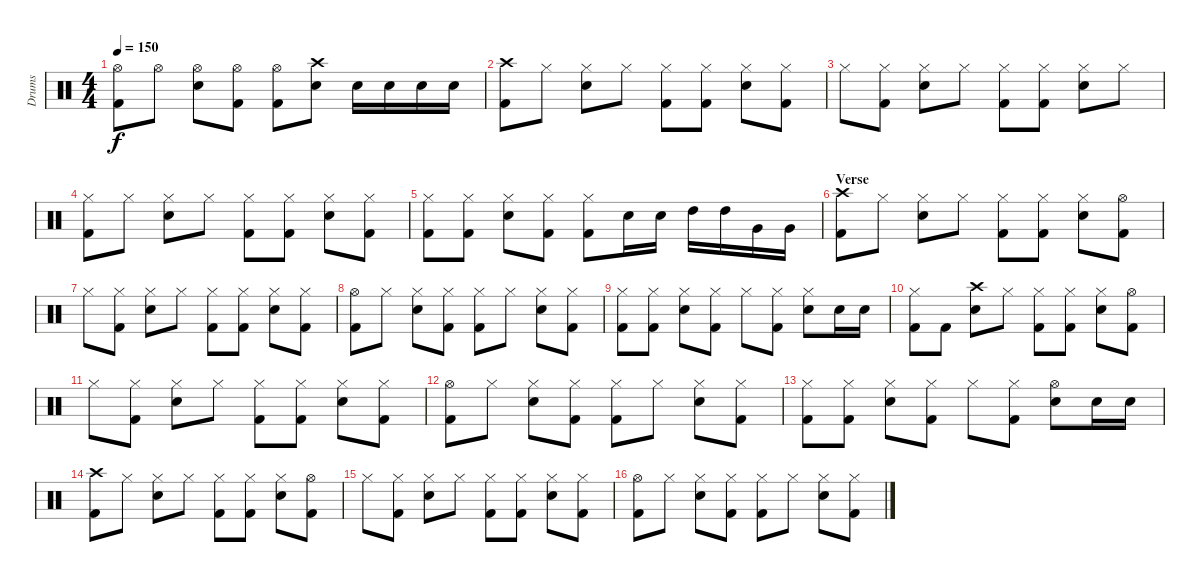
\track ("Drums" "Drums") {instrument percussion}
\staff {score}
\articulation defaults
\ts (4 4)
\tempo 150
\clef neutral
\ks c
("Hi-Hat (open)" "Kick (hit) 2").8{dy f} "Hi-Hat (open)".8 ("Hi-Hat (open)" "Electric Snare (hit)").8 ("Hi-Hat (open)" "Kick (hit) 2").8 ("Hi-Hat (open)" "Kick (hit) 2").8 ("Crash high (hit)" "Electric Snare (hit)").8 "Electric Snare (hit)".16 "Electric Snare (hit)".16 "Electric Snare (hit)".16 "Electric Snare (hit)".16 |
("Crash high (hit)" "Kick (hit) 2").8 "Hi-Hat (closed)".8 ("Hi-Hat (closed)" "Electric Snare (hit)").8 "Hi-Hat (closed)".8 ("Hi-Hat (closed)" "Kick (hit) 2").8 ("Hi-Hat (closed)" "Kick (hit) 2").8 ("Hi-Hat (closed)" "Electric Snare (hit)").8 ("Hi-Hat (closed)" "Kick (hit) 2").8 |
"Hi-Hat (closed)".8 ("Hi-Hat (closed)" "Kick (hit) 2").8 ("Hi-Hat (closed)" "Electric Snare (hit)").8 "Hi-Hat (closed)".8 ("Hi-Hat (closed)" "Kick (hit) 2").8 ("Hi-Hat (closed)" "Kick (hit) 2").8 ("Hi-Hat (closed)" "Electric Snare (hit)").8 "Hi-Hat (closed)".8 |
("Hi-Hat (closed)" "Kick (hit) 2").8 "Hi-Hat (closed)".8 ("Hi-Hat (closed)" "Electric Snare (hit)").8 "Hi-Hat (closed)".8 ("Hi-Hat (closed)" "Kick (hit) 2").8 ("Hi-Hat (closed)" "Kick (hit) 2").8 ("Hi-Hat (closed)" "Electric Snare (hit)").8 ("Hi-Hat (closed)" "Kick (hit) 2").8 |
("Hi-Hat (closed)" "Kick (hit) 2").8 ("Hi-Hat (closed)" "Kick (hit) 2").8 ("Hi-Hat (closed)" "Electric Snare (hit)").8 ("Hi-Hat (closed)" "Kick (hit) 2").8 ("Hi-Hat (closed)" "Kick (hit) 2").8 "Electric Snare (hit)".16 "Electric Snare (hit)".16 "High Tom (hit)".16 "High Tom (hit)".16 "Very Low Tom (hit)".16 "Very Low Tom (hit)".16 |
\section ("" "Verse")
("Crash high (hit)" "Kick (hit) 2").8 "Hi-Hat (closed)".8 ("Hi-Hat (closed)" "Electric Snare (hit)").8 "Hi-Hat (closed)".8 ("Hi-Hat (closed)" "Kick (hit) 2").8 ("Hi-Hat (closed)" "Kick (hit) 2").8 ("Hi-Hat (closed)" "Electric Snare (hit)").8 ("Hi-Hat (open)" "Kick (hit) 2").8 |
"Hi-Hat (closed)".8 ("Hi-Hat (closed)" "Kick (hit) 2").8 ("Hi-Hat (closed)" "Electric Snare (hit)").8 "Hi-Hat (closed)".8 ("Hi-Hat (closed)" "Kick (hit) 2").8 ("Hi-Hat (closed)" "Kick (hit) 2").8 ("Hi-Hat (closed)" "Electric Snare (hit)").8 ("Hi-Hat (closed)" "Kick (hit) 2").8 |
("Hi-Hat (open)" "Kick (hit) 2").8 "Hi-Hat (closed)".8 ("Hi-Hat (closed)" "Electric Snare (hit)").8 ("Hi-Hat (closed)" "Kick (hit) 2").8 ("Hi-Hat (closed)" "Kick (hit) 2").8 "Hi-Hat (closed)".8 ("Hi-Hat (closed)" "Electric Snare (hit)").8 ("Hi-Hat (closed)" "Kick (hit) 2").8 |
("Hi-Hat (closed)" "Kick (hit) 2").8 ("Hi-Hat (closed)" "Kick (hit) 2").8 ("Hi-Hat (closed)" "Electric Snare (hit)").8 ("Hi-Hat (closed)" "Kick (hit) 2").8 "Hi-Hat (closed)".8 ("Hi-Hat (closed)" "Kick (hit) 2").8 ("Hi-Hat (closed)" "Electric Snare (hit)").8 "Electric Snare (hit)".16 "Electric Snare (hit)".16 |
("Hi-Hat (closed)" "Kick (hit) 2").8 "Kick (hit) 2".8 ("Crash high (hit)" "Electric Snare (hit)").8 "Hi-Hat (closed)".8 ("Hi-Hat (closed)" "Kick (hit) 2").8 ("Hi-Hat (closed)" "Kick (hit) 2").8 ("Hi-Hat (closed)" "Electric Snare (hit)").8 ("Hi-Hat (open)" "Kick (hit) 2").8 |
"Hi-Hat (closed)".8 ("Hi-Hat (closed)" "Kick (hit) 2").8 ("Hi-Hat (closed)" "Electric Snare (hit)").8 "Hi-Hat (closed)".8 ("Hi-Hat (closed)" "Kick (hit) 2").8 ("Hi-Hat (closed)" "Kick (hit) 2").8 ("Hi-Hat (closed)" "Electric Snare (hit)").8 ("Hi-Hat (closed)" "Kick (hit) 2").8 |
("Hi-Hat (open)" "Kick (hit) 2").8 "Hi-Hat (closed)".8 ("Hi-Hat (closed)" "Electric Snare (hit)").8 ("Hi-Hat (closed)" "Kick (hit) 2").8 ("Hi-Hat (closed)" "Kick (hit) 2").8 "Hi-Hat (closed)".8 ("Hi-Hat (closed)" "Electric Snare (hit)").8 ("Hi-Hat (closed)" "Kick (hit) 2").8 |
("Hi-Hat (closed)" "Kick (hit) 2").8 ("Hi-Hat (closed)" "Kick (hit) 2").8 ("Hi-Hat (closed)" "Electric Snare (hit)").8 ("Hi-Hat (closed)" "Kick (hit) 2").8 "Hi-Hat (closed)".8 ("Hi-Hat (closed)" "Kick (hit) 2").8 ("Hi-Hat (open)" "Electric Snare (hit)").8 "Electric Snare (hit)".16 "Electric Snare (hit)".16 |
("Crash high (hit)" "Kick (hit) 2").8 "Hi-Hat (closed)".8 ("Hi-Hat (closed)" "Electric Snare (hit)").8 "Hi-Hat (closed)".8 ("Hi-Hat (closed)" "Kick (hit) 2").8 ("Hi-Hat (closed)" "Kick (hit) 2").8 ("Hi-Hat (closed)" "Electric Snare (hit)").8 ("Hi-Hat (open)" "Kick (hit) 2").8 |
"Hi-Hat (closed)".8 ("Hi-Hat (closed)" "Kick (hit) 2").8 ("Hi-Hat (closed)" "Electric Snare (hit)").8 "Hi-Hat (closed)".8 ("Hi-Hat (closed)" "Kick (hit) 2").8 ("Hi-Hat (closed)" "Kick (hit) 2").8 ("Hi-Hat (closed)" "Electric Snare (hit)").8 ("Hi-Hat (closed)" "Kick (hit) 2").8 |
("Hi-Hat (open)" "Kick (hit) 2").8 "Hi-Hat (closed)".8 ("Hi-Hat (closed)" "Electric Snare (hit)").8 ("Hi-Hat (closed)" "Kick (hit) 2").8 ("Hi-Hat (closed)" "Kick (hit) 2").8 "Hi-Hat (closed)".8 ("Hi-Hat (closed)" "Electric Snare (hit)").8 ("Hi-Hat (closed)" "Kick (hit) 2").8
